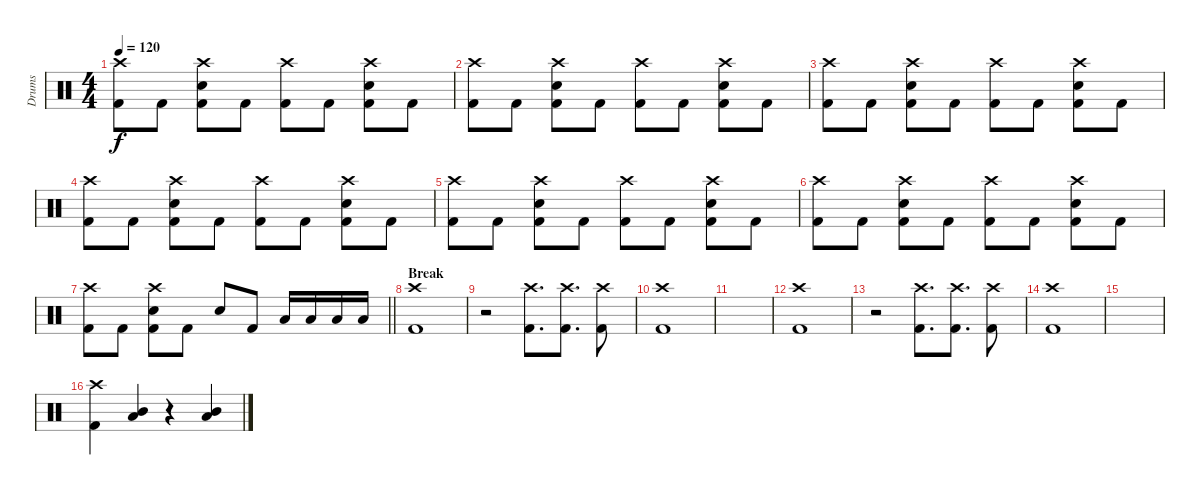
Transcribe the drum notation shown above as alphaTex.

\track ("Drums" "Drums") {instrument percussion}
\staff {score}
\articulation defaults
\ts (4 4)
\tempo 120
\clef neutral
\ks c
("Crash high (hit)" "Kick (hit) 2").8{dy f} "Kick (hit) 2".8 ("Crash high (hit)" "Electric Snare (hit)" "Kick (hit) 2").8 "Kick (hit) 2".8 ("Crash high (hit)" "Kick (hit) 2").8 "Kick (hit) 2".8 ("Crash high (hit)" "Electric Snare (hit)" "Kick (hit) 2").8 "Kick (hit) 2".8 |
("Crash high (hit)" "Kick (hit) 2").8 "Kick (hit) 2".8 ("Crash high (hit)" "Electric Snare (hit)" "Kick (hit) 2").8 "Kick (hit) 2".8 ("Crash high (hit)" "Kick (hit) 2").8 "Kick (hit) 2".8 ("Crash high (hit)" "Electric Snare (hit)" "Kick (hit) 2").8 "Kick (hit) 2".8 |
("Crash high (hit)" "Kick (hit) 2").8 "Kick (hit) 2".8 ("Crash high (hit)" "Electric Snare (hit)" "Kick (hit) 2").8 "Kick (hit) 2".8 ("Crash high (hit)" "Kick (hit) 2").8 "Kick (hit) 2".8 ("Crash high (hit)" "Electric Snare (hit)" "Kick (hit) 2").8 "Kick (hit) 2".8 |
("Crash high (hit)" "Kick (hit) 2").8 "Kick (hit) 2".8 ("Crash high (hit)" "Electric Snare (hit)" "Kick (hit) 2").8 "Kick (hit) 2".8 ("Crash high (hit)" "Kick (hit) 2").8 "Kick (hit) 2".8 ("Crash high (hit)" "Electric Snare (hit)" "Kick (hit) 2").8 "Kick (hit) 2".8 |
("Crash high (hit)" "Kick (hit) 2").8 "Kick (hit) 2".8 ("Crash high (hit)" "Electric Snare (hit)" "Kick (hit) 2").8 "Kick (hit) 2".8 ("Crash high (hit)" "Kick (hit) 2").8 "Kick (hit) 2".8 ("Crash high (hit)" "Electric Snare (hit)" "Kick (hit) 2").8 "Kick (hit) 2".8 |
("Crash high (hit)" "Kick (hit) 2").8 "Kick (hit) 2".8 ("Crash high (hit)" "Electric Snare (hit)" "Kick (hit) 2").8 "Kick (hit) 2".8 ("Crash high (hit)" "Kick (hit) 2").8 "Kick (hit) 2".8 ("Crash high (hit)" "Electric Snare (hit)" "Kick (hit) 2").8 "Kick (hit) 2".8 |
\barLineRight lightlight
("Crash high (hit)" "Kick (hit) 2").8 "Kick (hit) 2".8 ("Crash high (hit)" "Electric Snare (hit)" "Kick (hit) 2").8 "Kick (hit) 2".8 "Electric Snare (hit)".8 "Kick (hit) 2".8 "Low Tom (hit)".16 "Low Tom (hit)".16 "Low Tom (hit)".16 "Low Tom (hit)".16 |
\section ("" "Break")
("Crash high (hit)" "Kick (hit) 2").1 |
r.2 ("Crash high (hit)" "Kick (hit) 2").8{d} ("Crash high (hit)" "Kick (hit) 2").8{d} ("Crash high (hit)" "Kick (hit) 2").8 |
("Crash high (hit)" "Kick (hit) 2").1 |
|
("Crash high (hit)" "Kick (hit) 2").1 |
r.2 ("Crash high (hit)" "Kick (hit) 2").8{d} ("Crash high (hit)" "Kick (hit) 2").8{d} ("Crash high (hit)" "Kick (hit) 2").8 |
("Crash high (hit)" "Kick (hit) 2").1 |
|
("Crash high (hit)" "Kick (hit) 2").4 ("Mid Tom (hit)" "Low Tom (hit)").4 r.4 ("Mid Tom (hit)" "Low Tom (hit)").4
